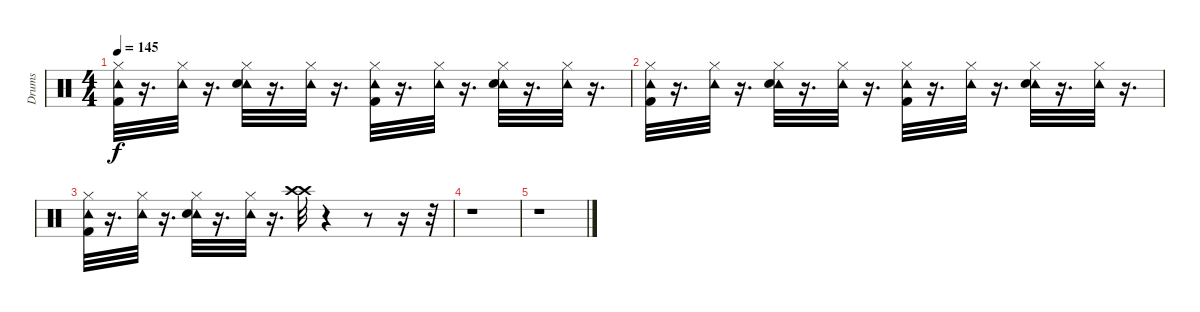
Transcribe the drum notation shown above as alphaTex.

\track ("Drums" "Drums") {instrument percussion}
\staff {score}
\articulation defaults
\ts (4 4)
\tempo 145
\clef neutral
\ks c
("Tambourine (hit)" "Kick (hit) 2" "Hi-Hat (closed)").32{dy f} r.16{d} ("Tambourine (hit)" "Hi-Hat (closed)").32 r.16{d} ("Tambourine (hit)" "Hi-Hat (closed)" "Snare (hit) 2").32 r.16{d} ("Tambourine (hit)" "Hi-Hat (closed)").32 r.16{d} ("Tambourine (hit)" "Kick (hit) 2" "Hi-Hat (closed)").32 r.16{d} ("Tambourine (hit)" "Hi-Hat (closed)").32 r.16{d} ("Tambourine (hit)" "Snare (hit) 2" "Hi-Hat (closed)").32 r.16{d} ("Tambourine (hit)" "Hi-Hat (closed)").32 r.16{d} |
("Tambourine (hit)" "Kick (hit) 2" "Hi-Hat (closed)").32 r.16{d} ("Tambourine (hit)" "Hi-Hat (closed)").32 r.16{d} ("Tambourine (hit)" "Hi-Hat (closed)" "Snare (hit) 2").32 r.16{d} ("Tambourine (hit)" "Hi-Hat (closed)").32 r.16{d} ("Tambourine (hit)" "Kick (hit) 2" "Hi-Hat (closed)").32 r.16{d} ("Tambourine (hit)" "Hi-Hat (closed)").32 r.16{d} ("Tambourine (hit)" "Snare (hit) 2" "Hi-Hat (closed)").32 r.16{d} ("Tambourine (hit)" "Hi-Hat (closed)").32 r.16{d} |
("Tambourine (hit)" "Kick (hit) 2" "Hi-Hat (closed)").32 r.16{d} ("Tambourine (hit)" "Hi-Hat (closed)").32 r.16{d} ("Tambourine (hit)" "Hi-Hat (closed)" "Snare (hit) 2").32 r.16{d} ("Tambourine (hit)" "Hi-Hat (closed)").32 r.16{d} ("Crash high (hit)" "Crash high (hit)").32 r.4 r.8 r.16 r.32 |
r.1 |
r.1
